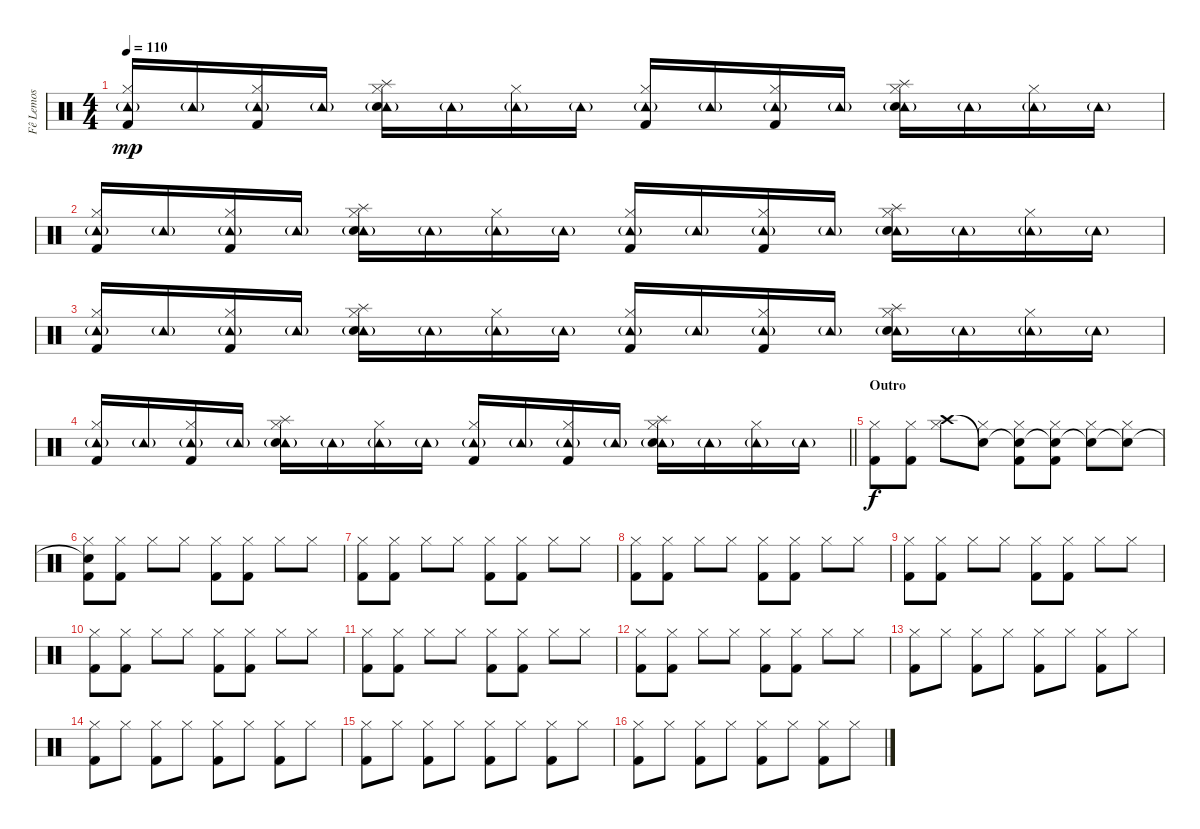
\track ("Fê Lemos" "Fê Lemos") {instrument percussion}
\staff {score}
\articulation defaults
\ts (4 4)
\tempo 110
\clef neutral
\ks c
("Tambourine (hit)"{g} "Hi-Hat (closed)" "Kick (hit) 2").16{dy mp} "Tambourine (hit)"{g}.16 ("Tambourine (hit)"{g} "Hi-Hat (closed)" "Kick (hit) 2").16 "Tambourine (hit)"{g}.16 ("Tambourine (hit)"{g} "Splash (hit)" "Hi-Hat (closed)" "Electric Snare (hit)").16 "Tambourine (hit)"{g}.16 ("Tambourine (hit)"{g} "Hi-Hat (closed)").16 "Tambourine (hit)"{g}.16 ("Tambourine (hit)"{g} "Hi-Hat (closed)" "Kick (hit) 2").16 "Tambourine (hit)"{g}.16 ("Tambourine (hit)"{g} "Hi-Hat (closed)" "Kick (hit) 2").16 "Tambourine (hit)"{g}.16 ("Tambourine (hit)"{g} "Splash (hit)" "Hi-Hat (closed)" "Electric Snare (hit)").16 "Tambourine (hit)"{g}.16 ("Tambourine (hit)"{g} "Hi-Hat (closed)").16 "Tambourine (hit)"{g}.16 |
("Tambourine (hit)"{g} "Hi-Hat (closed)" "Kick (hit) 2").16 "Tambourine (hit)"{g}.16 ("Tambourine (hit)"{g} "Hi-Hat (closed)" "Kick (hit) 2").16 "Tambourine (hit)"{g}.16 ("Tambourine (hit)"{g} "Splash (hit)" "Hi-Hat (closed)" "Electric Snare (hit)").16 "Tambourine (hit)"{g}.16 ("Tambourine (hit)"{g} "Hi-Hat (closed)").16 "Tambourine (hit)"{g}.16 ("Tambourine (hit)"{g} "Hi-Hat (closed)" "Kick (hit) 2").16 "Tambourine (hit)"{g}.16 ("Tambourine (hit)"{g} "Hi-Hat (closed)" "Kick (hit) 2").16 "Tambourine (hit)"{g}.16 ("Tambourine (hit)"{g} "Splash (hit)" "Hi-Hat (closed)" "Electric Snare (hit)").16 "Tambourine (hit)"{g}.16 ("Tambourine (hit)"{g} "Hi-Hat (closed)").16 "Tambourine (hit)"{g}.16 |
("Tambourine (hit)"{g} "Hi-Hat (closed)" "Kick (hit) 2").16 "Tambourine (hit)"{g}.16 ("Tambourine (hit)"{g} "Hi-Hat (closed)" "Kick (hit) 2").16 "Tambourine (hit)"{g}.16 ("Tambourine (hit)"{g} "Splash (hit)" "Hi-Hat (closed)" "Electric Snare (hit)").16 "Tambourine (hit)"{g}.16 ("Tambourine (hit)"{g} "Hi-Hat (closed)").16 "Tambourine (hit)"{g}.16 ("Tambourine (hit)"{g} "Hi-Hat (closed)" "Kick (hit) 2").16 "Tambourine (hit)"{g}.16 ("Tambourine (hit)"{g} "Hi-Hat (closed)" "Kick (hit) 2").16 "Tambourine (hit)"{g}.16 ("Tambourine (hit)"{g} "Splash (hit)" "Hi-Hat (closed)" "Electric Snare (hit)").16 "Tambourine (hit)"{g}.16 ("Tambourine (hit)"{g} "Hi-Hat (closed)").16 "Tambourine (hit)"{g}.16 |
\barLineRight lightlight
("Tambourine (hit)"{g} "Hi-Hat (closed)" "Kick (hit) 2").16 "Tambourine (hit)"{g}.16 ("Tambourine (hit)"{g} "Hi-Hat (closed)" "Kick (hit) 2").16 "Tambourine (hit)"{g}.16 ("Tambourine (hit)"{g} "Splash (hit)" "Hi-Hat (closed)" "Electric Snare (hit)").16 "Tambourine (hit)"{g}.16 ("Tambourine (hit)"{g} "Hi-Hat (closed)").16 "Tambourine (hit)"{g}.16 ("Tambourine (hit)"{g} "Hi-Hat (closed)" "Kick (hit) 2").16 "Tambourine (hit)"{g}.16 ("Tambourine (hit)"{g} "Hi-Hat (closed)" "Kick (hit) 2").16 "Tambourine (hit)"{g}.16 ("Tambourine (hit)"{g} "Splash (hit)" "Hi-Hat (closed)" "Electric Snare (hit)").16 "Tambourine (hit)"{g}.16 ("Tambourine (hit)"{g} "Hi-Hat (closed)").16 "Tambourine (hit)"{g}.16 |
\section ("" "Outro")
("Hi-Hat (closed)" "Kick (hit) 2").8{dy f} ("Hi-Hat (closed)" "Kick (hit) 2").8 ("Crash high (hit)" "Hi-Hat (closed)").8 ("Snare (hit)"{t} "Hi-Hat (closed)").8 ("Snare (hit)"{t} "Hi-Hat (closed)" "Kick (hit) 2").8 ("Snare (hit)"{t} "Hi-Hat (closed)" "Kick (hit) 2").8 ("Snare (hit)"{t} "Hi-Hat (closed)").8 ("Snare (hit)"{t} "Hi-Hat (closed)").8 |
("Snare (hit)"{t} "Hi-Hat (closed)" "Kick (hit) 2").8 ("Hi-Hat (closed)" "Kick (hit) 2").8 "Hi-Hat (closed)".8 "Hi-Hat (closed)".8 ("Hi-Hat (closed)" "Kick (hit) 2").8 ("Hi-Hat (closed)" "Kick (hit) 2").8 "Hi-Hat (closed)".8 "Hi-Hat (closed)".8 |
("Hi-Hat (closed)" "Kick (hit) 2").8 ("Hi-Hat (closed)" "Kick (hit) 2").8 "Hi-Hat (closed)".8 "Hi-Hat (closed)".8 ("Hi-Hat (closed)" "Kick (hit) 2").8 ("Hi-Hat (closed)" "Kick (hit) 2").8 "Hi-Hat (closed)".8 "Hi-Hat (closed)".8 |
("Hi-Hat (closed)" "Kick (hit) 2").8 ("Hi-Hat (closed)" "Kick (hit) 2").8 "Hi-Hat (closed)".8 "Hi-Hat (closed)".8 ("Hi-Hat (closed)" "Kick (hit) 2").8 ("Hi-Hat (closed)" "Kick (hit) 2").8 "Hi-Hat (closed)".8 "Hi-Hat (closed)".8 |
("Hi-Hat (closed)" "Kick (hit) 2").8 ("Hi-Hat (closed)" "Kick (hit) 2").8 "Hi-Hat (closed)".8 "Hi-Hat (closed)".8 ("Hi-Hat (closed)" "Kick (hit) 2").8 ("Hi-Hat (closed)" "Kick (hit) 2").8 "Hi-Hat (closed)".8 "Hi-Hat (closed)".8 |
("Hi-Hat (closed)" "Kick (hit) 2").8 ("Hi-Hat (closed)" "Kick (hit) 2").8 "Hi-Hat (closed)".8 "Hi-Hat (closed)".8 ("Hi-Hat (closed)" "Kick (hit) 2").8 ("Hi-Hat (closed)" "Kick (hit) 2").8 "Hi-Hat (closed)".8 "Hi-Hat (closed)".8 |
("Hi-Hat (closed)" "Kick (hit) 2").8 ("Hi-Hat (closed)" "Kick (hit) 2").8 "Hi-Hat (closed)".8 "Hi-Hat (closed)".8 ("Hi-Hat (closed)" "Kick (hit) 2").8 ("Hi-Hat (closed)" "Kick (hit) 2").8 "Hi-Hat (closed)".8 "Hi-Hat (closed)".8 |
("Hi-Hat (closed)" "Kick (hit) 2").8 ("Hi-Hat (closed)" "Kick (hit) 2").8 "Hi-Hat (closed)".8 "Hi-Hat (closed)".8 ("Hi-Hat (closed)" "Kick (hit) 2").8 ("Hi-Hat (closed)" "Kick (hit) 2").8 "Hi-Hat (closed)".8 "Hi-Hat (closed)".8 |
("Hi-Hat (closed)" "Kick (hit) 2").8 "Hi-Hat (closed)".8 ("Hi-Hat (closed)" "Kick (hit) 2").8 "Hi-Hat (closed)".8 ("Hi-Hat (closed)" "Kick (hit) 2").8 "Hi-Hat (closed)".8 ("Hi-Hat (closed)" "Kick (hit) 2").8 "Hi-Hat (closed)".8 |
("Hi-Hat (closed)" "Kick (hit) 2").8 "Hi-Hat (closed)".8 ("Hi-Hat (closed)" "Kick (hit) 2").8 "Hi-Hat (closed)".8 ("Hi-Hat (closed)" "Kick (hit) 2").8 "Hi-Hat (closed)".8 ("Hi-Hat (closed)" "Kick (hit) 2").8 "Hi-Hat (closed)".8 |
("Hi-Hat (closed)" "Kick (hit) 2").8 "Hi-Hat (closed)".8 ("Hi-Hat (closed)" "Kick (hit) 2").8 "Hi-Hat (closed)".8 ("Hi-Hat (closed)" "Kick (hit) 2").8 "Hi-Hat (closed)".8 ("Hi-Hat (closed)" "Kick (hit) 2").8 "Hi-Hat (closed)".8 |
("Hi-Hat (closed)" "Kick (hit) 2").8 "Hi-Hat (closed)".8 ("Hi-Hat (closed)" "Kick (hit) 2").8 "Hi-Hat (closed)".8 ("Hi-Hat (closed)" "Kick (hit) 2").8 "Hi-Hat (closed)".8 ("Hi-Hat (closed)" "Kick (hit) 2").8 "Hi-Hat (closed)".8
